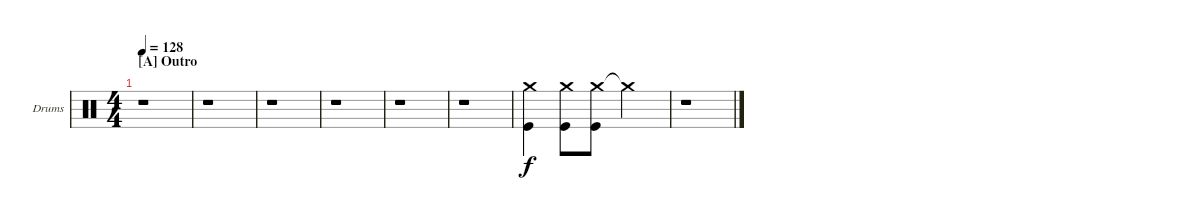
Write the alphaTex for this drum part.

\bracketExtendMode nobrackets
\firstSystemTrackNameOrientation horizontal
\otherSystemsTrackNameOrientation horizontal
\defaultBarNumberDisplay FirstOfSystem
\track ("Drumkit" "Drums") {instrument percussion}
\staff {score}
\articulation defaults
\ts (4 4)
\section ("A" "Outro")
\tempo 128
\clef neutral
\scale
0.318182
\ks c
r.1{dy f} |
\scale
0.181818 r.1 |
\scale
0.375536 r.1 |
\scale
0.375536 r.1 |
\scale
0.124464 r.1 |
\scale
0.124464 r.1 |
\scale
0.25 ("Crash medium (hit)" "Kick (hit)").4 ("Crash medium (hit)" "Kick (hit)").8 ("Crash medium (hit)" "Kick (hit)").8 "Crash medium (hit)"{t}.2 |
\scale
0.25 r.1 |
\scale
0.25
